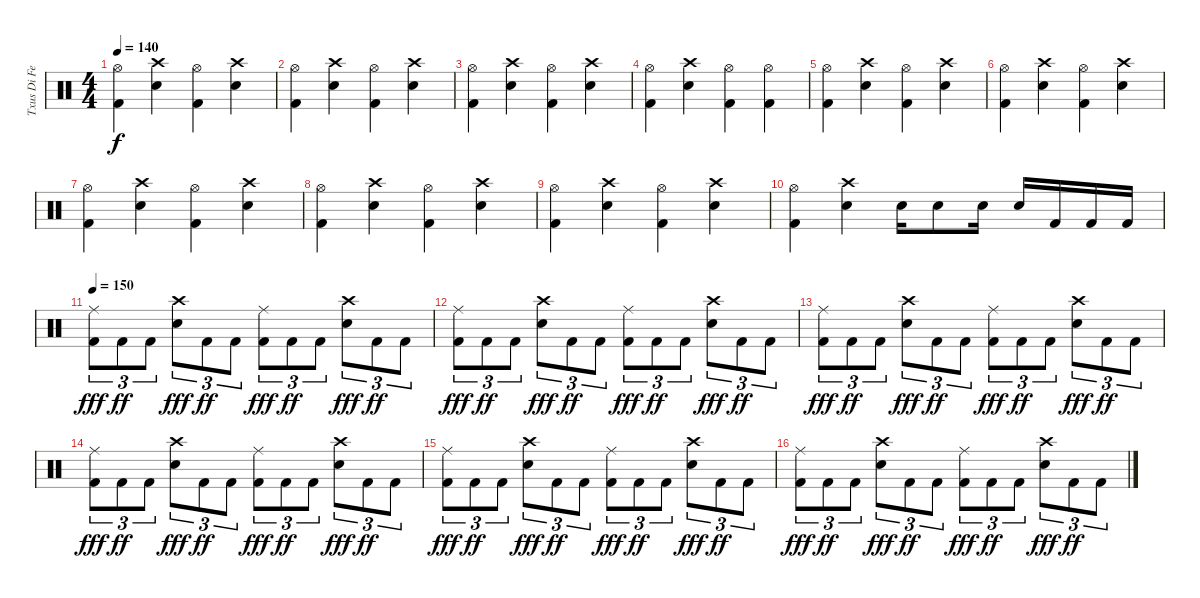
\track ("Txus Di Fellatio" "Txus Di Fe") {instrument percussion}
\staff {score}
\articulation defaults
\ts (4 4)
\tempo 140
\clef neutral
\ks c
("Hi-Hat (open)" "Kick (hit) 2").4{dy f} ("Crash high (hit)" "Electric Snare (hit)").4 ("Hi-Hat (open)" "Kick (hit) 2").4 ("Crash high (hit)" "Electric Snare (hit)").4 |
("Hi-Hat (open)" "Kick (hit) 2").4 ("Crash high (hit)" "Electric Snare (hit)").4 ("Hi-Hat (open)" "Kick (hit) 2").4 ("Crash high (hit)" "Electric Snare (hit)").4 |
("Hi-Hat (open)" "Kick (hit) 2").4 ("Crash high (hit)" "Electric Snare (hit)").4 ("Hi-Hat (open)" "Kick (hit) 2").4 ("Crash high (hit)" "Electric Snare (hit)").4 |
("Hi-Hat (open)" "Kick (hit) 2").4 ("Crash high (hit)" "Electric Snare (hit)").4 ("Hi-Hat (open)" "Kick (hit) 2").4 ("Hi-Hat (open)" "Kick (hit) 2").4 |
("Hi-Hat (open)" "Kick (hit) 2").4 ("Crash high (hit)" "Electric Snare (hit)").4 ("Hi-Hat (open)" "Kick (hit) 2").4 ("Crash high (hit)" "Electric Snare (hit)").4 |
("Hi-Hat (open)" "Kick (hit) 2").4 ("Crash high (hit)" "Electric Snare (hit)").4 ("Hi-Hat (open)" "Kick (hit) 2").4 ("Crash high (hit)" "Electric Snare (hit)").4 |
("Hi-Hat (open)" "Kick (hit) 2").4 ("Crash high (hit)" "Electric Snare (hit)").4 ("Hi-Hat (open)" "Kick (hit) 2").4 ("Crash high (hit)" "Electric Snare (hit)").4 |
("Hi-Hat (open)" "Kick (hit) 2").4 ("Crash high (hit)" "Electric Snare (hit)").4 ("Hi-Hat (open)" "Kick (hit) 2").4 ("Crash high (hit)" "Electric Snare (hit)").4 |
("Hi-Hat (open)" "Kick (hit) 2").4 ("Crash high (hit)" "Electric Snare (hit)").4 ("Hi-Hat (open)" "Kick (hit) 2").4 ("Crash high (hit)" "Electric Snare (hit)").4 |
("Hi-Hat (open)" "Kick (hit) 2").4 ("Crash high (hit)" "Electric Snare (hit)").4 "Electric Snare (hit)".16 "Electric Snare (hit)".8 "Electric Snare (hit)".16 "Electric Snare (hit)".16 "Kick (hit) 2".16 "Kick (hit) 2".16 "Kick (hit) 2".16 |
\tempo 150
("Kick (hit) 2" "Ride (middle)").8{tu (3 2) dy fff} "Kick (hit) 2".8{tu (3 2) dy ff} "Kick (hit) 2".8{tu (3 2)} ("Electric Snare (hit)" "Crash high (hit)").8{tu (3 2) dy fff} "Kick (hit) 2".8{tu (3 2) dy ff} "Kick (hit) 2".8{tu (3 2)} ("Kick (hit) 2" "Ride (middle)").8{tu (3 2) dy fff} "Kick (hit) 2".8{tu (3 2) dy ff} "Kick (hit) 2".8{tu (3 2)} ("Electric Snare (hit)" "Crash high (hit)").8{tu (3 2) dy fff} "Kick (hit) 2".8{tu (3 2) dy ff} "Kick (hit) 2".8{tu (3 2)} |
("Kick (hit) 2" "Ride (middle)").8{tu (3 2) dy fff} "Kick (hit) 2".8{tu (3 2) dy ff} "Kick (hit) 2".8{tu (3 2)} ("Electric Snare (hit)" "Crash high (hit)").8{tu (3 2) dy fff} "Kick (hit) 2".8{tu (3 2) dy ff} "Kick (hit) 2".8{tu (3 2)} ("Kick (hit) 2" "Ride (middle)").8{tu (3 2) dy fff} "Kick (hit) 2".8{tu (3 2) dy ff} "Kick (hit) 2".8{tu (3 2)} ("Electric Snare (hit)" "Crash high (hit)").8{tu (3 2) dy fff} "Kick (hit) 2".8{tu (3 2) dy ff} "Kick (hit) 2".8{tu (3 2)} |
("Kick (hit) 2" "Ride (middle)").8{tu (3 2) dy fff} "Kick (hit) 2".8{tu (3 2) dy ff} "Kick (hit) 2".8{tu (3 2)} ("Electric Snare (hit)" "Crash high (hit)").8{tu (3 2) dy fff} "Kick (hit) 2".8{tu (3 2) dy ff} "Kick (hit) 2".8{tu (3 2)} ("Kick (hit) 2" "Ride (middle)").8{tu (3 2) dy fff} "Kick (hit) 2".8{tu (3 2) dy ff} "Kick (hit) 2".8{tu (3 2)} ("Electric Snare (hit)" "Crash high (hit)").8{tu (3 2) dy fff} "Kick (hit) 2".8{tu (3 2) dy ff} "Kick (hit) 2".8{tu (3 2)} |
("Kick (hit) 2" "Ride (middle)").8{tu (3 2) dy fff} "Kick (hit) 2".8{tu (3 2) dy ff} "Kick (hit) 2".8{tu (3 2)} ("Electric Snare (hit)" "Crash high (hit)").8{tu (3 2) dy fff} "Kick (hit) 2".8{tu (3 2) dy ff} "Kick (hit) 2".8{tu (3 2)} ("Kick (hit) 2" "Ride (middle)").8{tu (3 2) dy fff} "Kick (hit) 2".8{tu (3 2) dy ff} "Kick (hit) 2".8{tu (3 2)} ("Electric Snare (hit)" "Crash high (hit)").8{tu (3 2) dy fff} "Kick (hit) 2".8{tu (3 2) dy ff} "Kick (hit) 2".8{tu (3 2)} |
("Kick (hit) 2" "Ride (middle)").8{tu (3 2) dy fff} "Kick (hit) 2".8{tu (3 2) dy ff} "Kick (hit) 2".8{tu (3 2)} ("Electric Snare (hit)" "Crash high (hit)").8{tu (3 2) dy fff} "Kick (hit) 2".8{tu (3 2) dy ff} "Kick (hit) 2".8{tu (3 2)} ("Kick (hit) 2" "Ride (middle)").8{tu (3 2) dy fff} "Kick (hit) 2".8{tu (3 2) dy ff} "Kick (hit) 2".8{tu (3 2)} ("Electric Snare (hit)" "Crash high (hit)").8{tu (3 2) dy fff} "Kick (hit) 2".8{tu (3 2) dy ff} "Kick (hit) 2".8{tu (3 2)} |
("Kick (hit) 2" "Ride (middle)").8{tu (3 2) dy fff} "Kick (hit) 2".8{tu (3 2) dy ff} "Kick (hit) 2".8{tu (3 2)} ("Electric Snare (hit)" "Crash high (hit)").8{tu (3 2) dy fff} "Kick (hit) 2".8{tu (3 2) dy ff} "Kick (hit) 2".8{tu (3 2)} ("Kick (hit) 2" "Ride (middle)").8{tu (3 2) dy fff} "Kick (hit) 2".8{tu (3 2) dy ff} "Kick (hit) 2".8{tu (3 2)} ("Electric Snare (hit)" "Crash high (hit)").8{tu (3 2) dy fff} "Kick (hit) 2".8{tu (3 2) dy ff} "Kick (hit) 2".8{tu (3 2)}
